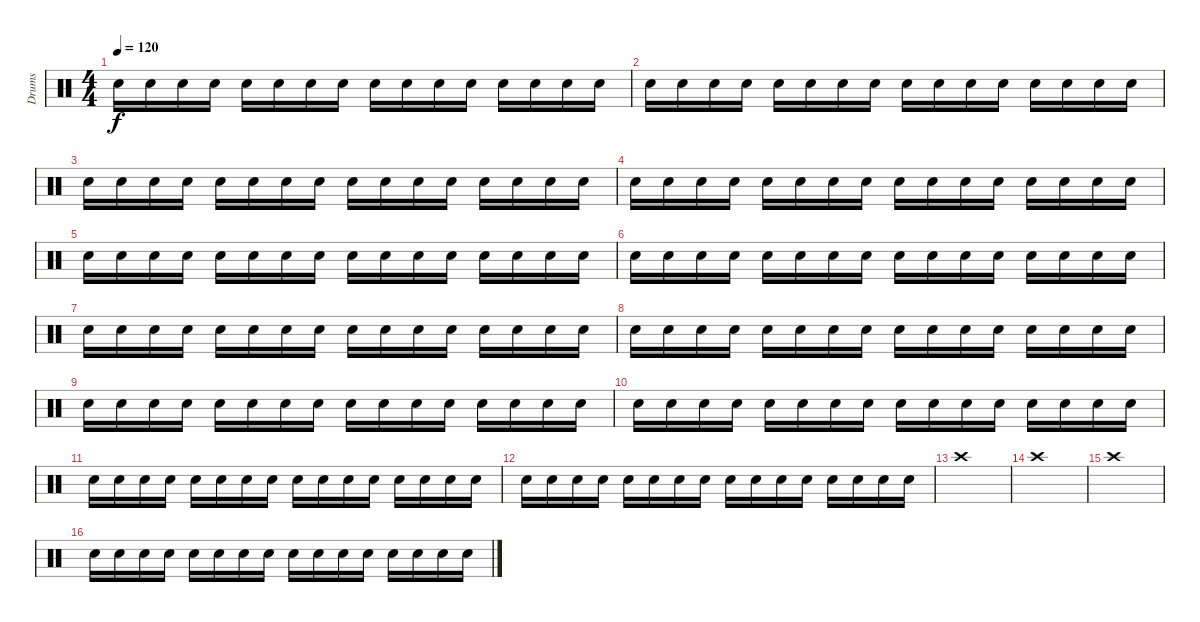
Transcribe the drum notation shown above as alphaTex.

\track ("Drums" "Drums") {instrument percussion}
\staff {score}
\articulation defaults
\ts (4 4)
\tempo 120
\clef neutral
\ks c "Electric Snare (hit)".16{dy f} "Electric Snare (hit)".16 "Electric Snare (hit)".16 "Electric Snare (hit)".16 "Electric Snare (hit)".16 "Electric Snare (hit)".16 "Electric Snare (hit)".16 "Electric Snare (hit)".16 "Electric Snare (hit)".16 "Electric Snare (hit)".16 "Electric Snare (hit)".16 "Electric Snare (hit)".16 "Electric Snare (hit)".16 "Electric Snare (hit)".16 "Electric Snare (hit)".16 "Electric Snare (hit)".16
|
"Electric Snare (hit)".16 "Electric Snare (hit)".16 "Electric Snare (hit)".16 "Electric Snare (hit)".16 "Electric Snare (hit)".16 "Electric Snare (hit)".16 "Electric Snare (hit)".16 "Electric Snare (hit)".16 "Electric Snare (hit)".16 "Electric Snare (hit)".16 "Electric Snare (hit)".16 "Electric Snare (hit)".16 "Electric Snare (hit)".16 "Electric Snare (hit)".16 "Electric Snare (hit)".16 "Electric Snare (hit)".16 |
"Electric Snare (hit)".16 "Electric Snare (hit)".16 "Electric Snare (hit)".16 "Electric Snare (hit)".16 "Electric Snare (hit)".16 "Electric Snare (hit)".16 "Electric Snare (hit)".16 "Electric Snare (hit)".16 "Electric Snare (hit)".16 "Electric Snare (hit)".16 "Electric Snare (hit)".16 "Electric Snare (hit)".16 "Electric Snare (hit)".16 "Electric Snare (hit)".16 "Electric Snare (hit)".16 "Electric Snare (hit)".16 |
"Electric Snare (hit)".16 "Electric Snare (hit)".16 "Electric Snare (hit)".16 "Electric Snare (hit)".16 "Electric Snare (hit)".16 "Electric Snare (hit)".16 "Electric Snare (hit)".16 "Electric Snare (hit)".16 "Electric Snare (hit)".16 "Electric Snare (hit)".16 "Electric Snare (hit)".16 "Electric Snare (hit)".16 "Electric Snare (hit)".16 "Electric Snare (hit)".16 "Electric Snare (hit)".16 "Electric Snare (hit)".16 |
"Electric Snare (hit)".16 "Electric Snare (hit)".16 "Electric Snare (hit)".16 "Electric Snare (hit)".16 "Electric Snare (hit)".16 "Electric Snare (hit)".16 "Electric Snare (hit)".16 "Electric Snare (hit)".16 "Electric Snare (hit)".16 "Electric Snare (hit)".16 "Electric Snare (hit)".16 "Electric Snare (hit)".16 "Electric Snare (hit)".16 "Electric Snare (hit)".16 "Electric Snare (hit)".16 "Electric Snare (hit)".16 |
"Electric Snare (hit)".16 "Electric Snare (hit)".16 "Electric Snare (hit)".16 "Electric Snare (hit)".16 "Electric Snare (hit)".16 "Electric Snare (hit)".16 "Electric Snare (hit)".16 "Electric Snare (hit)".16 "Electric Snare (hit)".16 "Electric Snare (hit)".16 "Electric Snare (hit)".16 "Electric Snare (hit)".16 "Electric Snare (hit)".16 "Electric Snare (hit)".16 "Electric Snare (hit)".16 "Electric Snare (hit)".16 |
"Electric Snare (hit)".16 "Electric Snare (hit)".16 "Electric Snare (hit)".16 "Electric Snare (hit)".16 "Electric Snare (hit)".16 "Electric Snare (hit)".16 "Electric Snare (hit)".16 "Electric Snare (hit)".16 "Electric Snare (hit)".16 "Electric Snare (hit)".16 "Electric Snare (hit)".16 "Electric Snare (hit)".16 "Electric Snare (hit)".16 "Electric Snare (hit)".16 "Electric Snare (hit)".16 "Electric Snare (hit)".16 |
"Electric Snare (hit)".16 "Electric Snare (hit)".16 "Electric Snare (hit)".16 "Electric Snare (hit)".16 "Electric Snare (hit)".16 "Electric Snare (hit)".16 "Electric Snare (hit)".16 "Electric Snare (hit)".16 "Electric Snare (hit)".16 "Electric Snare (hit)".16 "Electric Snare (hit)".16 "Electric Snare (hit)".16 "Electric Snare (hit)".16 "Electric Snare (hit)".16 "Electric Snare (hit)".16 "Electric Snare (hit)".16 |
"Electric Snare (hit)".16 "Electric Snare (hit)".16 "Electric Snare (hit)".16 "Electric Snare (hit)".16 "Electric Snare (hit)".16 "Electric Snare (hit)".16 "Electric Snare (hit)".16 "Electric Snare (hit)".16 "Electric Snare (hit)".16 "Electric Snare (hit)".16 "Electric Snare (hit)".16 "Electric Snare (hit)".16 "Electric Snare (hit)".16 "Electric Snare (hit)".16 "Electric Snare (hit)".16 "Electric Snare (hit)".16 |
"Electric Snare (hit)".16 "Electric Snare (hit)".16 "Electric Snare (hit)".16 "Electric Snare (hit)".16 "Electric Snare (hit)".16 "Electric Snare (hit)".16 "Electric Snare (hit)".16 "Electric Snare (hit)".16 "Electric Snare (hit)".16 "Electric Snare (hit)".16 "Electric Snare (hit)".16 "Electric Snare (hit)".16 "Electric Snare (hit)".16 "Electric Snare (hit)".16 "Electric Snare (hit)".16 "Electric Snare (hit)".16 |
"Electric Snare (hit)".16 "Electric Snare (hit)".16 "Electric Snare (hit)".16 "Electric Snare (hit)".16 "Electric Snare (hit)".16 "Electric Snare (hit)".16 "Electric Snare (hit)".16 "Electric Snare (hit)".16 "Electric Snare (hit)".16 "Electric Snare (hit)".16 "Electric Snare (hit)".16 "Electric Snare (hit)".16 "Electric Snare (hit)".16 "Electric Snare (hit)".16 "Electric Snare (hit)".16 "Electric Snare (hit)".16 |
"Electric Snare (hit)".16 "Electric Snare (hit)".16 "Electric Snare (hit)".16 "Electric Snare (hit)".16 "Electric Snare (hit)".16 "Electric Snare (hit)".16 "Electric Snare (hit)".16 "Electric Snare (hit)".16 "Electric Snare (hit)".16 "Electric Snare (hit)".16 "Electric Snare (hit)".16 "Electric Snare (hit)".16 "Electric Snare (hit)".16 "Electric Snare (hit)".16 "Electric Snare (hit)".16 "Electric Snare (hit)".16 |
"Crash high (hit)".1 |
"Crash high (hit)".1 |
"Crash high (hit)".1 |
"Electric Snare (hit)".16 "Electric Snare (hit)".16 "Electric Snare (hit)".16 "Electric Snare (hit)".16 "Electric Snare (hit)".16 "Electric Snare (hit)".16 "Electric Snare (hit)".16 "Electric Snare (hit)".16 "Electric Snare (hit)".16 "Electric Snare (hit)".16 "Electric Snare (hit)".16 "Electric Snare (hit)".16 "Electric Snare (hit)".16 "Electric Snare (hit)".16 "Electric Snare (hit)".16 "Electric Snare (hit)".16
